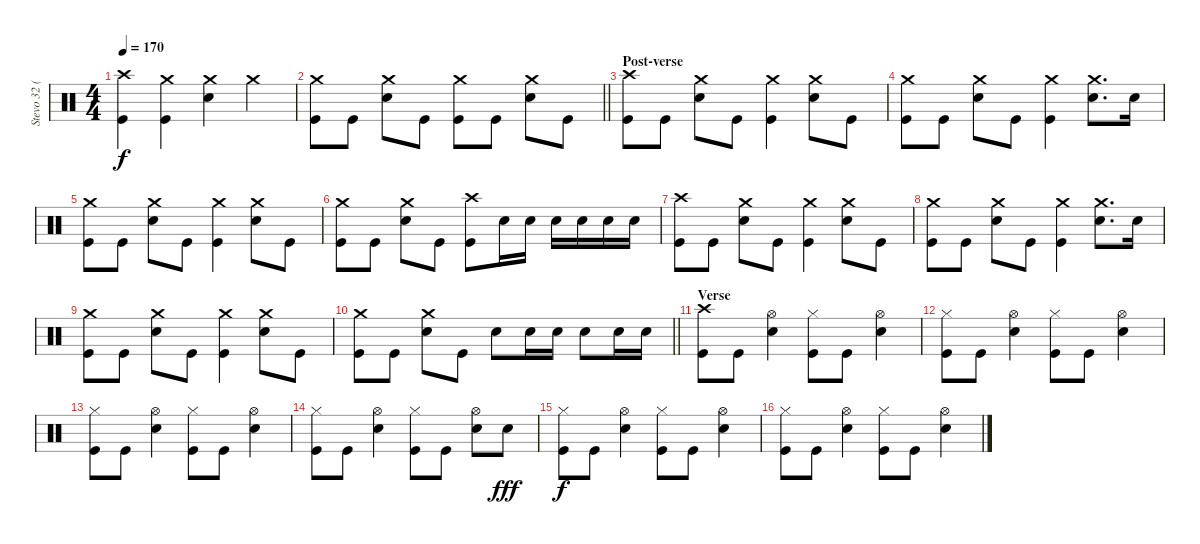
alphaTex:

\track ("Stevo 32 (Drums)" "Stevo 32 (") {instrument percussion}
\staff {score}
\articulation defaults
\ts (4 4)
\tempo 170
\clef neutral
\ks c
("Crash high (hit)" "Kick (hit)").4{dy f} ("Crash medium (hit)" "Kick (hit)").4 ("Crash medium (hit)" "Electric Snare (hit)").4 "Crash medium (hit)".4 |
\barLineRight lightlight
("Crash medium (hit)" "Kick (hit)").8 "Kick (hit)".8 ("Crash medium (hit)" "Electric Snare (hit)").8 "Kick (hit)".8 ("Crash medium (hit)" "Kick (hit)").8 "Kick (hit)".8 ("Crash medium (hit)" "Electric Snare (hit)").8 "Kick (hit)".8 |
\section ("" "Post-verse")
("Crash high (hit)" "Kick (hit)").8 "Kick (hit)".8 ("Crash medium (hit)" "Electric Snare (hit)").8 "Kick (hit)".8 ("Crash medium (hit)" "Kick (hit)").4 ("Crash medium (hit)" "Electric Snare (hit)").8 "Kick (hit)".8 |
("Crash medium (hit)" "Kick (hit)").8 "Kick (hit)".8 ("Crash medium (hit)" "Electric Snare (hit)").8 "Kick (hit)".8 ("Crash medium (hit)" "Kick (hit)").4 ("Crash medium (hit)" "Electric Snare (hit)").8{d} "Electric Snare (hit)".16 |
("Crash medium (hit)" "Kick (hit)").8 "Kick (hit)".8 ("Crash medium (hit)" "Electric Snare (hit)").8 "Kick (hit)".8 ("Crash medium (hit)" "Kick (hit)").4 ("Crash medium (hit)" "Electric Snare (hit)").8 "Kick (hit)".8 |
("Crash medium (hit)" "Kick (hit)").8 "Kick (hit)".8 ("Crash medium (hit)" "Electric Snare (hit)").8 "Kick (hit)".8 ("Crash high (hit)" "Kick (hit)").8 "Electric Snare (hit)".16 "Electric Snare (hit)".16 "Electric Snare (hit)".16 "Electric Snare (hit)".16 "Electric Snare (hit)".16 "Electric Snare (hit)".16 |
("Crash high (hit)" "Kick (hit)").8 "Kick (hit)".8 ("Crash medium (hit)" "Electric Snare (hit)").8 "Kick (hit)".8 ("Crash medium (hit)" "Kick (hit)").4 ("Crash medium (hit)" "Electric Snare (hit)").8 "Kick (hit)".8 |
("Crash medium (hit)" "Kick (hit)").8 "Kick (hit)".8 ("Crash medium (hit)" "Electric Snare (hit)").8 "Kick (hit)".8 ("Crash medium (hit)" "Kick (hit)").4 ("Crash medium (hit)" "Electric Snare (hit)").8{d} "Electric Snare (hit)".16 |
("Crash medium (hit)" "Kick (hit)").8 "Kick (hit)".8 ("Crash medium (hit)" "Electric Snare (hit)").8 "Kick (hit)".8 ("Crash medium (hit)" "Kick (hit)").4 ("Crash medium (hit)" "Electric Snare (hit)").8 "Kick (hit)".8 |
\barLineRight lightlight
("Crash medium (hit)" "Kick (hit)").8 "Kick (hit)".8 ("Crash medium (hit)" "Electric Snare (hit)").8 "Kick (hit)".8 "Electric Snare (hit)".8 "Electric Snare (hit)".16 "Electric Snare (hit)".16 "Electric Snare (hit)".8 "Electric Snare (hit)".16 "Electric Snare (hit)".16 |
\section ("" "Verse")
("Crash high (hit)" "Kick (hit)").8 "Kick (hit)".8 ("Hi-Hat (open)" "Electric Snare (hit)").4 ("Hi-Hat (closed)" "Kick (hit)").8 "Kick (hit)".8 ("Hi-Hat (open)" "Electric Snare (hit)").4 |
("Hi-Hat (closed)" "Kick (hit)").8 "Kick (hit)".8 ("Hi-Hat (open)" "Electric Snare (hit)").4 ("Hi-Hat (closed)" "Kick (hit)").8 "Kick (hit)".8 ("Hi-Hat (open)" "Electric Snare (hit)").4 |
("Hi-Hat (closed)" "Kick (hit)").8 "Kick (hit)".8 ("Hi-Hat (open)" "Electric Snare (hit)").4 ("Hi-Hat (closed)" "Kick (hit)").8 "Kick (hit)".8 ("Hi-Hat (open)" "Electric Snare (hit)").4 |
("Hi-Hat (closed)" "Kick (hit)").8 "Kick (hit)".8 ("Hi-Hat (open)" "Electric Snare (hit)").4 ("Hi-Hat (closed)" "Kick (hit)").8 "Kick (hit)".8 ("Hi-Hat (open)" "Electric Snare (hit)").8 "Electric Snare (hit)".8{dy fff} |
("Hi-Hat (closed)" "Kick (hit)").8{dy f} "Kick (hit)".8 ("Hi-Hat (open)" "Electric Snare (hit)").4 ("Hi-Hat (closed)" "Kick (hit)").8 "Kick (hit)".8 ("Hi-Hat (open)" "Electric Snare (hit)").4 |
("Hi-Hat (closed)" "Kick (hit)").8 "Kick (hit)".8 ("Hi-Hat (open)" "Electric Snare (hit)").4 ("Hi-Hat (closed)" "Kick (hit)").8 "Kick (hit)".8 ("Hi-Hat (open)" "Electric Snare (hit)").4
